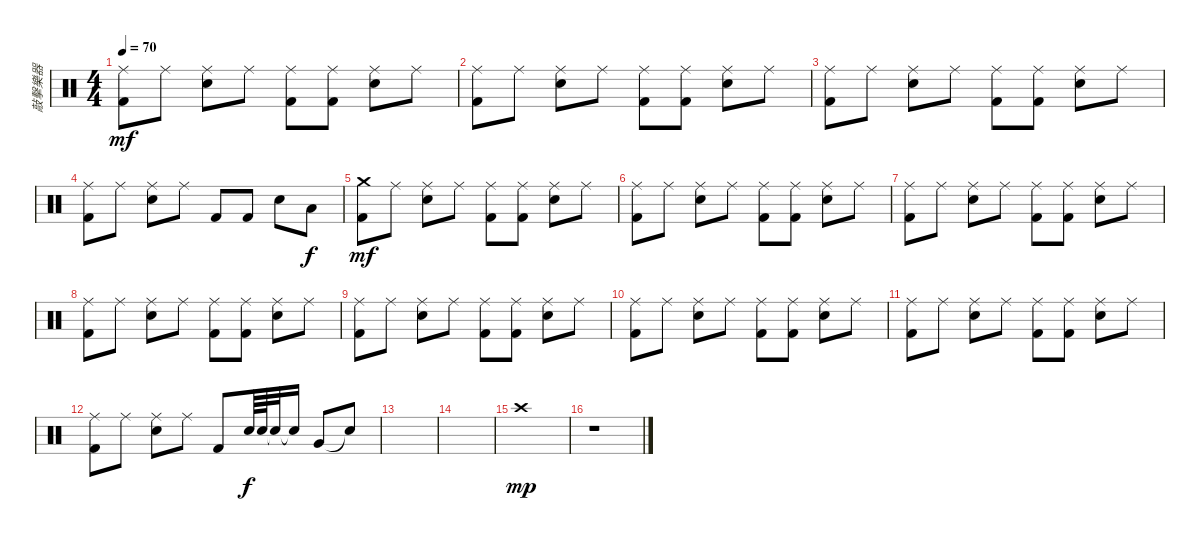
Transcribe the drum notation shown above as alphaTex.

\track ("敲擊樂器" "敲擊樂器") {instrument percussion}
\staff {score}
\articulation defaults
\ts (4 4)
\tempo 70
\clef neutral
\ks c
("Ride (middle)" "Kick (hit) 2").8{dy mf} "Ride (middle)".8 ("Ride (middle)" "Snare (hit) 2").8 "Ride (middle)".8 ("Ride (middle)" "Kick (hit) 2").8 ("Ride (middle)" "Kick (hit) 2").8 ("Ride (middle)" "Snare (hit) 2").8 "Ride (middle)".8 |
("Ride (middle)" "Kick (hit) 2").8 "Ride (middle)".8 ("Ride (middle)" "Snare (hit) 2").8 "Ride (middle)".8 ("Ride (middle)" "Kick (hit) 2").8 ("Ride (middle)" "Kick (hit) 2").8 ("Ride (middle)" "Snare (hit) 2").8 "Ride (middle)".8 |
("Ride (middle)" "Kick (hit) 2").8 "Ride (middle)".8 ("Ride (middle)" "Snare (hit) 2").8 "Ride (middle)".8 ("Ride (middle)" "Kick (hit) 2").8 ("Ride (middle)" "Kick (hit) 2").8 ("Ride (middle)" "Snare (hit) 2").8 "Ride (middle)".8 |
("Ride (middle)" "Kick (hit) 2").8 "Ride (middle)".8 ("Ride (middle)" "Snare (hit) 2").8 "Ride (middle)".8 "Kick (hit) 2".8 "Kick (hit) 2".8 "Snare (hit) 2".8 "Low Floor Tom (hit)".8{dy f} |
("Crash medium (hit)" "Kick (hit) 2").8{dy mf} "Ride (middle)".8 ("Ride (middle)" "Snare (hit) 2").8 "Ride (middle)".8 ("Ride (middle)" "Kick (hit) 2").8 ("Ride (middle)" "Kick (hit) 2").8 ("Ride (middle)" "Snare (hit) 2").8 "Ride (middle)".8 |
("Ride (middle)" "Kick (hit) 2").8 "Ride (middle)".8 ("Ride (middle)" "Snare (hit) 2").8 "Ride (middle)".8 ("Ride (middle)" "Kick (hit) 2").8 ("Ride (middle)" "Kick (hit) 2").8 ("Ride (middle)" "Snare (hit) 2").8 "Ride (middle)".8 |
("Ride (middle)" "Kick (hit) 2").8 "Ride (middle)".8 ("Ride (middle)" "Snare (hit) 2").8 "Ride (middle)".8 ("Ride (middle)" "Kick (hit) 2").8 ("Ride (middle)" "Kick (hit) 2").8 ("Ride (middle)" "Snare (hit) 2").8 "Ride (middle)".8 |
("Ride (middle)" "Kick (hit) 2").8 "Ride (middle)".8 ("Ride (middle)" "Snare (hit) 2").8 "Ride (middle)".8 ("Ride (middle)" "Kick (hit) 2").8 ("Ride (middle)" "Kick (hit) 2").8 ("Ride (middle)" "Snare (hit) 2").8 "Ride (middle)".8 |
("Ride (middle)" "Kick (hit) 2").8 "Ride (middle)".8 ("Ride (middle)" "Snare (hit) 2").8 "Ride (middle)".8 ("Ride (middle)" "Kick (hit) 2").8 ("Ride (middle)" "Kick (hit) 2").8 ("Ride (middle)" "Snare (hit) 2").8 "Ride (middle)".8 |
("Ride (middle)" "Kick (hit) 2").8 "Ride (middle)".8 ("Ride (middle)" "Snare (hit) 2").8 "Ride (middle)".8 ("Ride (middle)" "Kick (hit) 2").8 ("Ride (middle)" "Kick (hit) 2").8 ("Ride (middle)" "Snare (hit) 2").8 "Ride (middle)".8 |
("Ride (middle)" "Kick (hit) 2").8 "Ride (middle)".8 ("Ride (middle)" "Snare (hit) 2").8 "Ride (middle)".8 ("Ride (middle)" "Kick (hit) 2").8 ("Ride (middle)" "Kick (hit) 2").8 ("Ride (middle)" "Snare (hit) 2").8 "Ride (middle)".8 |
("Ride (middle)" "Kick (hit) 2").8 "Ride (middle)".8 ("Ride (middle)" "Snare (hit) 2").8 "Ride (middle)".8 "Kick (hit) 2".8 "Snare (hit) 2".64{dy f} "Snare (hit) 2".64 "Snare (hit)"{t}.32 "Snare (hit)"{t}.16 "Very Low Tom (hit)".8 "Snare (hit)"{t}.8 |
|
|
"Crash high (hit)".1{dy mp} |
r.1
